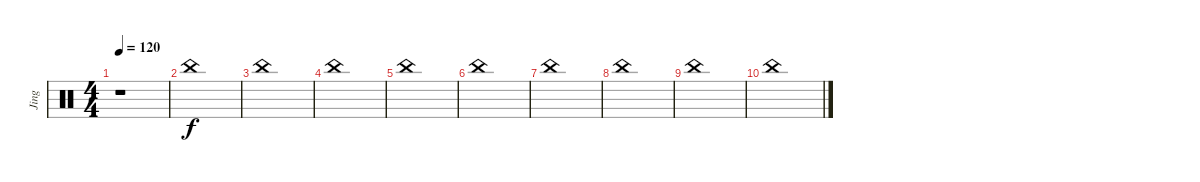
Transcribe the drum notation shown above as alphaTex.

\track ("Jing" "Jing") {instrument percussion}
\staff {score}
\articulation defaults
\ts (4 4)
\tempo 120
\clef neutral
\ks c
r.1{dy f} |
"China (hit)".1 |
"China (hit)".1 |
"China (hit)".1 |
"China (hit)".1 |
"China (hit)".1 |
"China (hit)".1 |
"China (hit)".1 |
"China (hit)".1 |
"China (hit)".1
